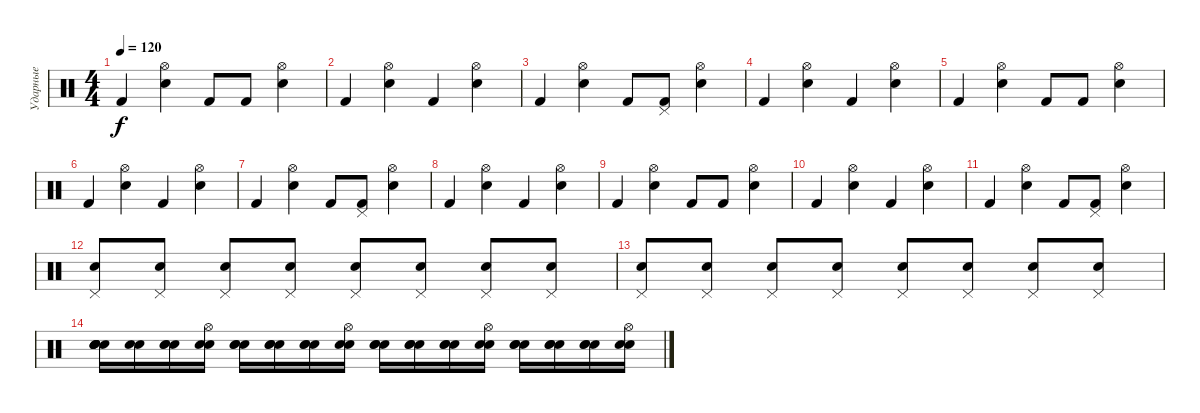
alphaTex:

\track ("Ударные" "Ударные") {instrument percussion}
\staff {score}
\articulation defaults
\ts (4 4)
\tempo 120
\clef neutral
\ks c "Kick (hit) 2".4{dy f}
("Hi-Hat (open)" "Electric Snare (hit)").4 "Kick (hit) 2".8 "Kick (hit) 2".8 ("Hi-Hat (open)" "Electric Snare (hit)").4 |
"Kick (hit) 2".4 ("Hi-Hat (open)" "Electric Snare (hit)").4 "Kick (hit) 2".4 ("Hi-Hat (open)" "Electric Snare (hit)").4 |
"Kick (hit) 2".4 ("Hi-Hat (open)" "Electric Snare (hit)").4 "Kick (hit) 2".8 ("Pedal Hi-Hat (hit)" "Kick (hit) 2").8 ("Hi-Hat (open)" "Electric Snare (hit)").4 |
"Kick (hit) 2".4 ("Hi-Hat (open)" "Electric Snare (hit)").4 "Kick (hit) 2".4 ("Hi-Hat (open)" "Electric Snare (hit)").4 |
"Kick (hit) 2".4 ("Hi-Hat (open)" "Electric Snare (hit)").4 "Kick (hit) 2".8 "Kick (hit) 2".8 ("Hi-Hat (open)" "Electric Snare (hit)").4 |
"Kick (hit) 2".4 ("Hi-Hat (open)" "Electric Snare (hit)").4 "Kick (hit) 2".4 ("Hi-Hat (open)" "Electric Snare (hit)").4 |
"Kick (hit) 2".4 ("Hi-Hat (open)" "Electric Snare (hit)").4 "Kick (hit) 2".8 ("Pedal Hi-Hat (hit)" "Kick (hit) 2").8 ("Hi-Hat (open)" "Electric Snare (hit)").4 |
"Kick (hit) 2".4 ("Hi-Hat (open)" "Electric Snare (hit)").4 "Kick (hit) 2".4 ("Hi-Hat (open)" "Electric Snare (hit)").4 |
"Kick (hit) 2".4 ("Hi-Hat (open)" "Electric Snare (hit)").4 "Kick (hit) 2".8 "Kick (hit) 2".8 ("Hi-Hat (open)" "Electric Snare (hit)").4 |
"Kick (hit) 2".4 ("Hi-Hat (open)" "Electric Snare (hit)").4 "Kick (hit) 2".4 ("Hi-Hat (open)" "Electric Snare (hit)").4 |
"Kick (hit) 2".4 ("Hi-Hat (open)" "Electric Snare (hit)").4 "Kick (hit) 2".8 ("Pedal Hi-Hat (hit)" "Kick (hit) 2").8 ("Hi-Hat (open)" "Electric Snare (hit)").4 |
("Pedal Hi-Hat (hit)" "Electric Snare (hit)").8 ("Electric Snare (hit)" "Pedal Hi-Hat (hit)").8 ("Pedal Hi-Hat (hit)" "Electric Snare (hit)").8 ("Pedal Hi-Hat (hit)" "Electric Snare (hit)").8 ("Pedal Hi-Hat (hit)" "Electric Snare (hit)").8 ("Pedal Hi-Hat (hit)" "Electric Snare (hit)").8 ("Pedal Hi-Hat (hit)" "Electric Snare (hit)").8 ("Pedal Hi-Hat (hit)" "Electric Snare (hit)").8 |
("Pedal Hi-Hat (hit)" "Electric Snare (hit)").8 ("Electric Snare (hit)" "Pedal Hi-Hat (hit)").8 ("Pedal Hi-Hat (hit)" "Electric Snare (hit)").8 ("Pedal Hi-Hat (hit)" "Electric Snare (hit)").8 ("Pedal Hi-Hat (hit)" "Electric Snare (hit)").8 ("Pedal Hi-Hat (hit)" "Electric Snare (hit)").8 ("Pedal Hi-Hat (hit)" "Electric Snare (hit)").8 ("Pedal Hi-Hat (hit)" "Electric Snare (hit)").8 |
("Electric Snare (hit)" "Electric Snare (hit)" "Electric Snare (hit)" "Electric Snare (hit)" "Electric Snare (hit)").16 ("Electric Snare (hit)" "Electric Snare (hit)").16 ("Electric Snare (hit)" "Electric Snare (hit)" "Electric Snare (hit)").16 ("Electric Snare (hit)" "Electric Snare (hit)" "Hi-Hat (open)").16 ("Electric Snare (hit)" "Electric Snare (hit)" "Electric Snare (hit)").16 ("Electric Snare (hit)" "Electric Snare (hit)" "Electric Snare (hit)").16 ("Electric Snare (hit)" "Electric Snare (hit)" "Electric Snare (hit)").16 ("Electric Snare (hit)" "Electric Snare (hit)" "Hi-Hat (open)").16 ("Electric Snare (hit)" "Electric Snare (hit)" "Electric Snare (hit)").16 ("Electric Snare (hit)" "Electric Snare (hit)" "Electric Snare (hit)").16 ("Electric Snare (hit)" "Electric Snare (hit)" "Electric Snare (hit)").16 ("Electric Snare (hit)" "Electric Snare (hit)" "Hi-Hat (open)").16 ("Electric Snare (hit)" "Electric Snare (hit)" "Electric Snare (hit)").16 ("Electric Snare (hit)" "Electric Snare (hit)" "Electric Snare (hit)").16 ("Electric Snare (hit)" "Electric Snare (hit)" "Electric Snare (hit)").16 ("Electric Snare (hit)" "Electric Snare (hit)" "Hi-Hat (open)").16
